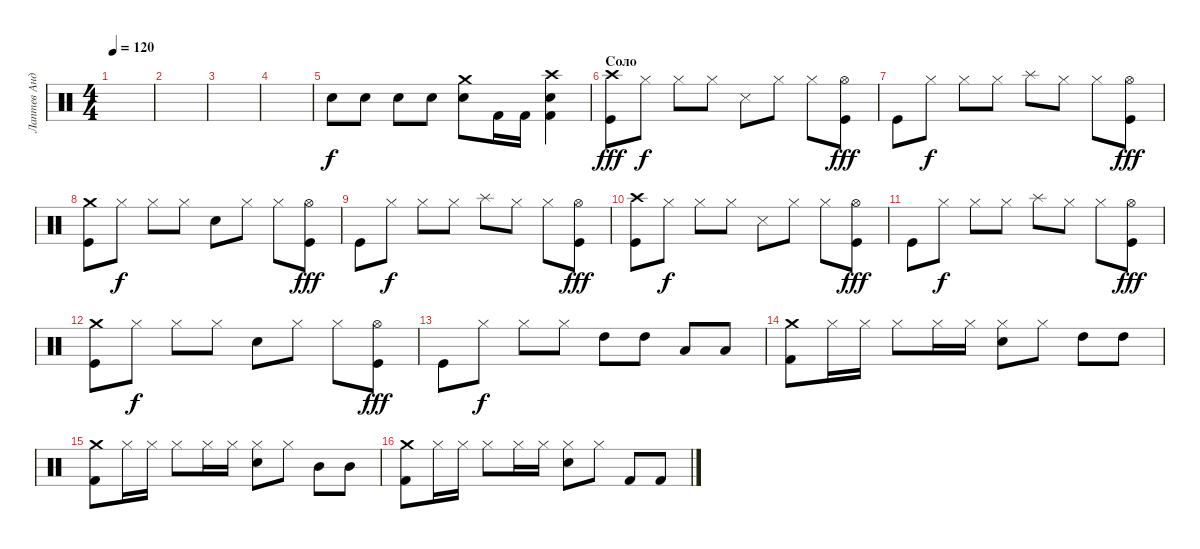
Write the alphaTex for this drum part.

\track ("Лаптев Андрей" "Лаптев Анд") {instrument percussion}
\staff {score}
\articulation defaults
\ts (4 4)
\tempo 120
\clef neutral
\ks c
|
|
|
|
"Electric Snare (hit)".8{dy f} "Electric Snare (hit)".8 "Electric Snare (hit)".8 "Electric Snare (hit)".8 ("Electric Snare (hit)" "Crash medium (hit)").8 "Kick (hit) 2".16 "Kick (hit) 2".16 ("Crash high (hit)" "Kick (hit) 2" "Electric Snare (hit)").4 |
\section ("" "Соло")
("Kick (hit)" "Crash high (hit)").8{dy fff} "Hi-Hat (closed)".8{dy f} "Hi-Hat (closed)".8 "Hi-Hat (closed)".8 "Snare (side stick) 3".8 "Hi-Hat (closed)".8 "Hi-Hat (closed)".8 ("Hi-Hat (open)" "Kick (hit)").8{dy fff} |
"Kick (hit)".8 "Hi-Hat (closed)".8{dy f} "Hi-Hat (closed)".8 "Hi-Hat (closed)".8 "Splash (hit)".8 "Hi-Hat (closed)".8 "Hi-Hat (closed)".8 ("Kick (hit)" "Hi-Hat (open)").8{dy fff} |
("Kick (hit)" "Crash medium (hit)").8 "Hi-Hat (closed)".8{dy f} "Hi-Hat (closed)".8 "Hi-Hat (closed)".8 "Snare (hit) 2".8 "Hi-Hat (closed)".8 "Hi-Hat (closed)".8 ("Kick (hit)" "Hi-Hat (open)").8{dy fff} |
"Kick (hit)".8 "Hi-Hat (closed)".8{dy f} "Hi-Hat (closed)".8 "Hi-Hat (closed)".8 "Splash (hit)".8 "Hi-Hat (closed)".8 "Hi-Hat (closed)".8 ("Kick (hit)" "Hi-Hat (open)").8{dy fff} |
("Kick (hit)" "Crash high (hit)").8 "Hi-Hat (closed)".8{dy f} "Hi-Hat (closed)".8 "Hi-Hat (closed)".8 "Snare (side stick) 3".8 "Hi-Hat (closed)".8 "Hi-Hat (closed)".8 ("Hi-Hat (open)" "Kick (hit)").8{dy fff} |
"Kick (hit)".8 "Hi-Hat (closed)".8{dy f} "Hi-Hat (closed)".8 "Hi-Hat (closed)".8 "Splash (hit)".8 "Hi-Hat (closed)".8 "Hi-Hat (closed)".8 ("Kick (hit)" "Hi-Hat (open)").8{dy fff} |
("Kick (hit)" "Crash medium (hit)").8 "Hi-Hat (closed)".8{dy f} "Hi-Hat (closed)".8 "Hi-Hat (closed)".8 "Snare (hit) 2".8 "Hi-Hat (closed)".8 "Hi-Hat (closed)".8 ("Kick (hit)" "Hi-Hat (open)").8{dy fff} |
"Kick (hit)".8 "Hi-Hat (closed)".8{dy f} "Hi-Hat (closed)".8 "Hi-Hat (closed)".8 "High Tom (hit)".8 "High Tom (hit)".8 "Low Tom (hit)".8 "Low Tom (hit)".8 |
("Crash medium (hit)" "Kick (hit) 2").8 "Hi-Hat (closed)".16 "Hi-Hat (closed)".16 "Hi-Hat (closed)".8 "Hi-Hat (closed)".16 "Hi-Hat (closed)".16 ("Hi-Hat (closed)" "Electric Snare (hit)").8 "Hi-Hat (closed)".8 "High Tom (hit)".8 "High Tom (hit)".8 |
("Crash medium (hit)" "Kick (hit) 2").8 "Hi-Hat (closed)".16 "Hi-Hat (closed)".16 "Hi-Hat (closed)".8 "Hi-Hat (closed)".16 "Hi-Hat (closed)".16 ("Hi-Hat (closed)" "Electric Snare (hit)").8 "Hi-Hat (closed)".8 "Mid Tom (hit)".8 "Mid Tom (hit)".8 |
("Crash medium (hit)" "Kick (hit) 2").8 "Hi-Hat (closed)".16 "Hi-Hat (closed)".16 "Hi-Hat (closed)".8 "Hi-Hat (closed)".16 "Hi-Hat (closed)".16 ("Hi-Hat (closed)" "Electric Snare (hit)").8 "Hi-Hat (closed)".8 "Kick (hit) 2".8 "Kick (hit) 2".8
